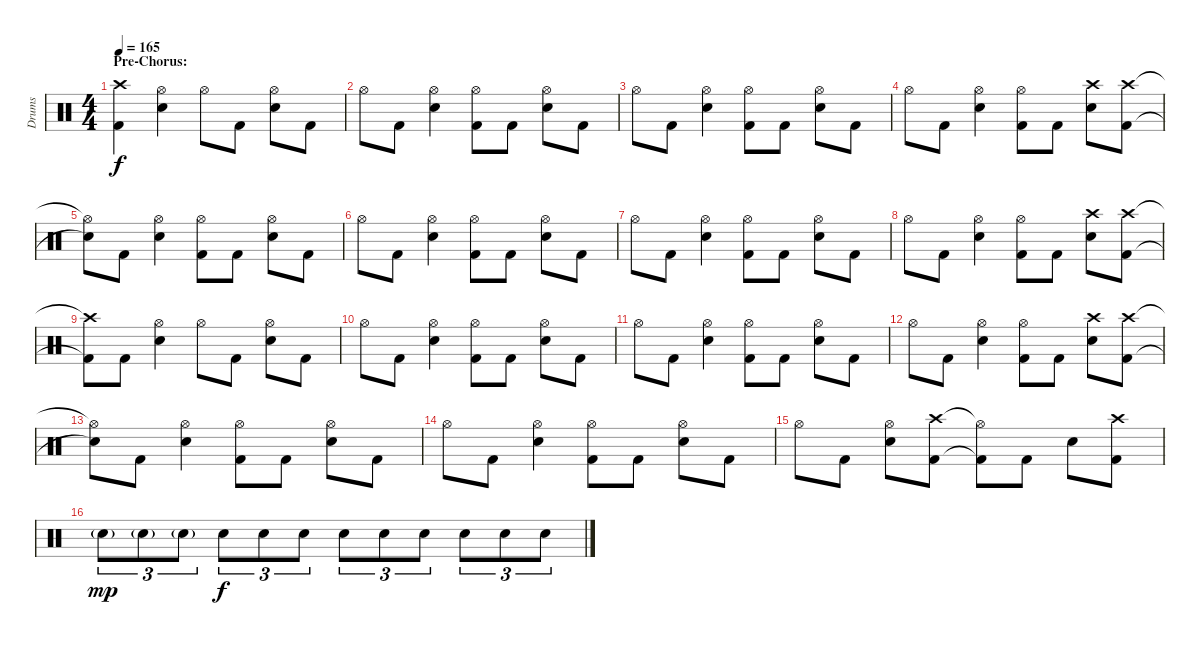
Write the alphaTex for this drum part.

\track ("Drums" "Drums") {instrument percussion}
\staff {score}
\articulation defaults
\ts (4 4)
\section ("" "Pre-Chorus:")
\tempo 165
\clef neutral
\ks c
("Crash high (hit)" "Kick (hit) 2").4{dy f} ("Hi-Hat (open)" "Electric Snare (hit)").4 "Hi-Hat (open)".8 "Kick (hit) 2".8 ("Hi-Hat (open)" "Electric Snare (hit)").8 "Kick (hit) 2".8 |
"Hi-Hat (open)".8 "Kick (hit) 2".8 ("Hi-Hat (open)" "Electric Snare (hit)").4 ("Hi-Hat (open)" "Kick (hit) 2").8 "Kick (hit) 2".8 ("Hi-Hat (open)" "Electric Snare (hit)").8 "Kick (hit) 2".8 |
"Hi-Hat (open)".8 "Kick (hit) 2".8 ("Hi-Hat (open)" "Electric Snare (hit)").4 ("Hi-Hat (open)" "Kick (hit) 2").8 "Kick (hit) 2".8 ("Hi-Hat (open)" "Electric Snare (hit)").8 "Kick (hit) 2".8 |
"Hi-Hat (open)".8 "Kick (hit) 2".8 ("Hi-Hat (open)" "Electric Snare (hit)").4 ("Hi-Hat (open)" "Kick (hit) 2").8 "Kick (hit) 2".8 ("Crash high (hit)" "Electric Snare (hit)").8 ("Crash high (hit)" "Kick (hit) 2").8 |
("Hi-Hat (open)"{t} "Snare (hit)"{t}).8 "Kick (hit) 2".8 ("Hi-Hat (open)" "Electric Snare (hit)").4 ("Hi-Hat (open)" "Kick (hit) 2").8 "Kick (hit) 2".8 ("Hi-Hat (open)" "Electric Snare (hit)").8 "Kick (hit) 2".8 |
"Hi-Hat (open)".8 "Kick (hit) 2".8 ("Hi-Hat (open)" "Electric Snare (hit)").4 ("Hi-Hat (open)" "Kick (hit) 2").8 "Kick (hit) 2".8 ("Hi-Hat (open)" "Electric Snare (hit)").8 "Kick (hit) 2".8 |
"Hi-Hat (open)".8 "Kick (hit) 2".8 ("Hi-Hat (open)" "Electric Snare (hit)").4 ("Hi-Hat (open)" "Kick (hit) 2").8 "Kick (hit) 2".8 ("Hi-Hat (open)" "Electric Snare (hit)").8 "Kick (hit) 2".8 |
"Hi-Hat (open)".8 "Kick (hit) 2".8 ("Hi-Hat (open)" "Electric Snare (hit)").4 ("Hi-Hat (open)" "Kick (hit) 2").8 "Kick (hit) 2".8 ("Crash high (hit)" "Electric Snare (hit)").8 ("Crash high (hit)" "Kick (hit) 2").8 |
("Crash high (hit)"{t} "Kick (hit) 2"{t}).8 "Kick (hit) 2".8 ("Hi-Hat (open)" "Electric Snare (hit)").4 "Hi-Hat (open)".8 "Kick (hit) 2".8 ("Hi-Hat (open)" "Electric Snare (hit)").8 "Kick (hit) 2".8 |
"Hi-Hat (open)".8 "Kick (hit) 2".8 ("Hi-Hat (open)" "Electric Snare (hit)").4 ("Hi-Hat (open)" "Kick (hit) 2").8 "Kick (hit) 2".8 ("Hi-Hat (open)" "Electric Snare (hit)").8 "Kick (hit) 2".8 |
"Hi-Hat (open)".8 "Kick (hit) 2".8 ("Hi-Hat (open)" "Electric Snare (hit)").4 ("Hi-Hat (open)" "Kick (hit) 2").8 "Kick (hit) 2".8 ("Hi-Hat (open)" "Electric Snare (hit)").8 "Kick (hit) 2".8 |
"Hi-Hat (open)".8 "Kick (hit) 2".8 ("Hi-Hat (open)" "Electric Snare (hit)").4 ("Hi-Hat (open)" "Kick (hit) 2").8 "Kick (hit) 2".8 ("Crash high (hit)" "Electric Snare (hit)").8 ("Crash high (hit)" "Kick (hit) 2").8 |
("Hi-Hat (open)"{t} "Snare (hit)"{t}).8 "Kick (hit) 2".8 ("Hi-Hat (open)" "Electric Snare (hit)").4 ("Hi-Hat (open)" "Kick (hit) 2").8 "Kick (hit) 2".8 ("Hi-Hat (open)" "Electric Snare (hit)").8 "Kick (hit) 2".8 |
"Hi-Hat (open)".8 "Kick (hit) 2".8 ("Hi-Hat (open)" "Electric Snare (hit)").4 ("Hi-Hat (open)" "Kick (hit) 2").8 "Kick (hit) 2".8 ("Hi-Hat (open)" "Electric Snare (hit)").8 "Kick (hit) 2".8 |
"Hi-Hat (open)".8 "Kick (hit) 2".8 ("Hi-Hat (open)" "Electric Snare (hit)").8 ("Crash high (hit)" "Kick (hit) 2").8 ("Hi-Hat (open)"{t} "Kick (hit) 2"{t}).8 "Kick (hit) 2".8 "Electric Snare (hit)".8 ("Crash high (hit)" "Kick (hit) 2").8 |
"Electric Snare (hit)"{g}.8{tu (3 2) dy mp} "Electric Snare (hit)"{g}.8{tu (3 2)} "Electric Snare (hit)"{g}.8{tu (3 2)} "Electric Snare (hit)".8{tu (3 2) dy f} "Electric Snare (hit)".8{tu (3 2)} "Electric Snare (hit)".8{tu (3 2)} "Electric Snare (hit)".8{tu (3 2)} "Electric Snare (hit)".8{tu (3 2)} "Electric Snare (hit)".8{tu (3 2)} "Electric Snare (hit)".8{tu (3 2)} "Electric Snare (hit)".8{tu (3 2)} "Electric Snare (hit)".8{tu (3 2)}
